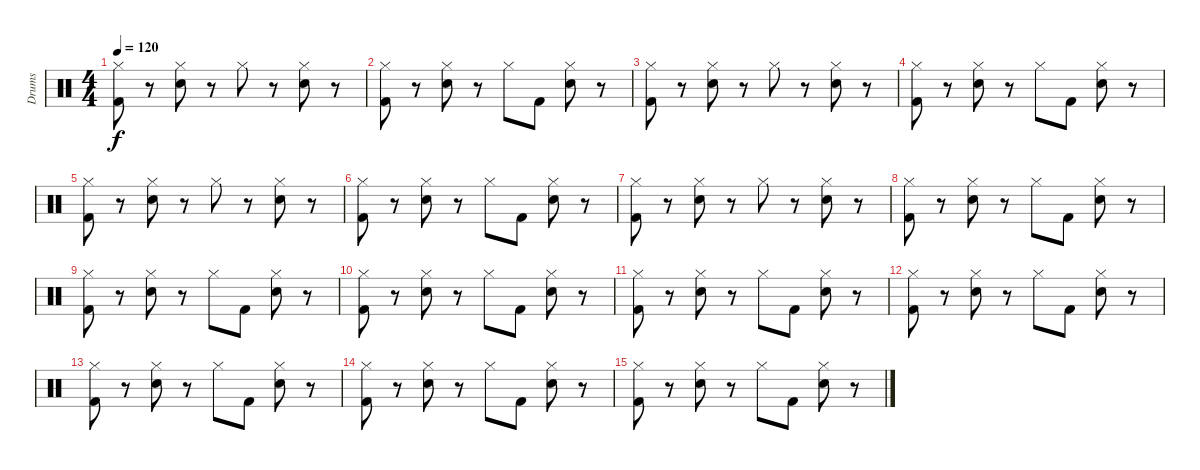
\track ("Drums" "Drums") {instrument percussion}
\staff {score}
\articulation defaults
\ts (4 4)
\tempo 120
\clef neutral
\ks c
("Hi-Hat (closed)" "Kick (hit) 2").8{dy f} r.8 ("Hi-Hat (closed)" "Snare (hit) 2").8 r.8 "Hi-Hat (closed)".8 r.8 ("Hi-Hat (closed)" "Snare (hit) 2").8 r.8 |
("Hi-Hat (closed)" "Kick (hit) 2").8 r.8 ("Hi-Hat (closed)" "Snare (hit) 2").8 r.8 "Hi-Hat (closed)".8 "Kick (hit) 2".8 ("Hi-Hat (closed)" "Snare (hit) 2").8 r.8 |
("Hi-Hat (closed)" "Kick (hit) 2").8 r.8 ("Hi-Hat (closed)" "Snare (hit) 2").8 r.8 "Hi-Hat (closed)".8 r.8 ("Hi-Hat (closed)" "Snare (hit) 2").8 r.8 |
("Hi-Hat (closed)" "Kick (hit) 2").8 r.8 ("Hi-Hat (closed)" "Snare (hit) 2").8 r.8 "Hi-Hat (closed)".8 "Kick (hit) 2".8 ("Hi-Hat (closed)" "Snare (hit) 2").8 r.8 |
("Hi-Hat (closed)" "Kick (hit) 2").8 r.8 ("Hi-Hat (closed)" "Snare (hit) 2").8 r.8 "Hi-Hat (closed)".8 r.8 ("Hi-Hat (closed)" "Snare (hit) 2").8 r.8 |
("Hi-Hat (closed)" "Kick (hit) 2").8 r.8 ("Hi-Hat (closed)" "Snare (hit) 2").8 r.8 "Hi-Hat (closed)".8 "Kick (hit) 2".8 ("Hi-Hat (closed)" "Snare (hit) 2").8 r.8 |
("Hi-Hat (closed)" "Kick (hit) 2").8 r.8 ("Hi-Hat (closed)" "Snare (hit) 2").8 r.8 "Hi-Hat (closed)".8 r.8 ("Hi-Hat (closed)" "Snare (hit) 2").8 r.8 |
("Hi-Hat (closed)" "Kick (hit) 2").8 r.8 ("Hi-Hat (closed)" "Snare (hit) 2").8 r.8 "Hi-Hat (closed)".8 "Kick (hit) 2".8 ("Hi-Hat (closed)" "Snare (hit) 2").8 r.8 |
("Hi-Hat (closed)" "Kick (hit) 2").8 r.8 ("Hi-Hat (closed)" "Snare (hit) 2").8 r.8 "Hi-Hat (closed)".8 "Kick (hit) 2".8 ("Hi-Hat (closed)" "Snare (hit) 2").8 r.8 |
("Hi-Hat (closed)" "Kick (hit) 2").8 r.8 ("Hi-Hat (closed)" "Snare (hit) 2").8 r.8 "Hi-Hat (closed)".8 "Kick (hit) 2".8 ("Hi-Hat (closed)" "Snare (hit) 2").8 r.8 |
("Hi-Hat (closed)" "Kick (hit) 2").8 r.8 ("Hi-Hat (closed)" "Snare (hit) 2").8 r.8 "Hi-Hat (closed)".8 "Kick (hit) 2".8 ("Hi-Hat (closed)" "Snare (hit) 2").8 r.8 |
("Hi-Hat (closed)" "Kick (hit) 2").8 r.8 ("Hi-Hat (closed)" "Snare (hit) 2").8 r.8 "Hi-Hat (closed)".8 "Kick (hit) 2".8 ("Hi-Hat (closed)" "Snare (hit) 2").8 r.8 |
("Hi-Hat (closed)" "Kick (hit) 2").8 r.8 ("Hi-Hat (closed)" "Snare (hit) 2").8 r.8 "Hi-Hat (closed)".8 "Kick (hit) 2".8 ("Hi-Hat (closed)" "Snare (hit) 2").8 r.8 |
("Hi-Hat (closed)" "Kick (hit) 2").8 r.8 ("Hi-Hat (closed)" "Snare (hit) 2").8 r.8 "Hi-Hat (closed)".8 "Kick (hit) 2".8 ("Hi-Hat (closed)" "Snare (hit) 2").8 r.8 |
("Hi-Hat (closed)" "Kick (hit) 2").8 r.8 ("Hi-Hat (closed)" "Snare (hit) 2").8 r.8 "Hi-Hat (closed)".8 "Kick (hit) 2".8 ("Hi-Hat (closed)" "Snare (hit) 2").8 r.8
